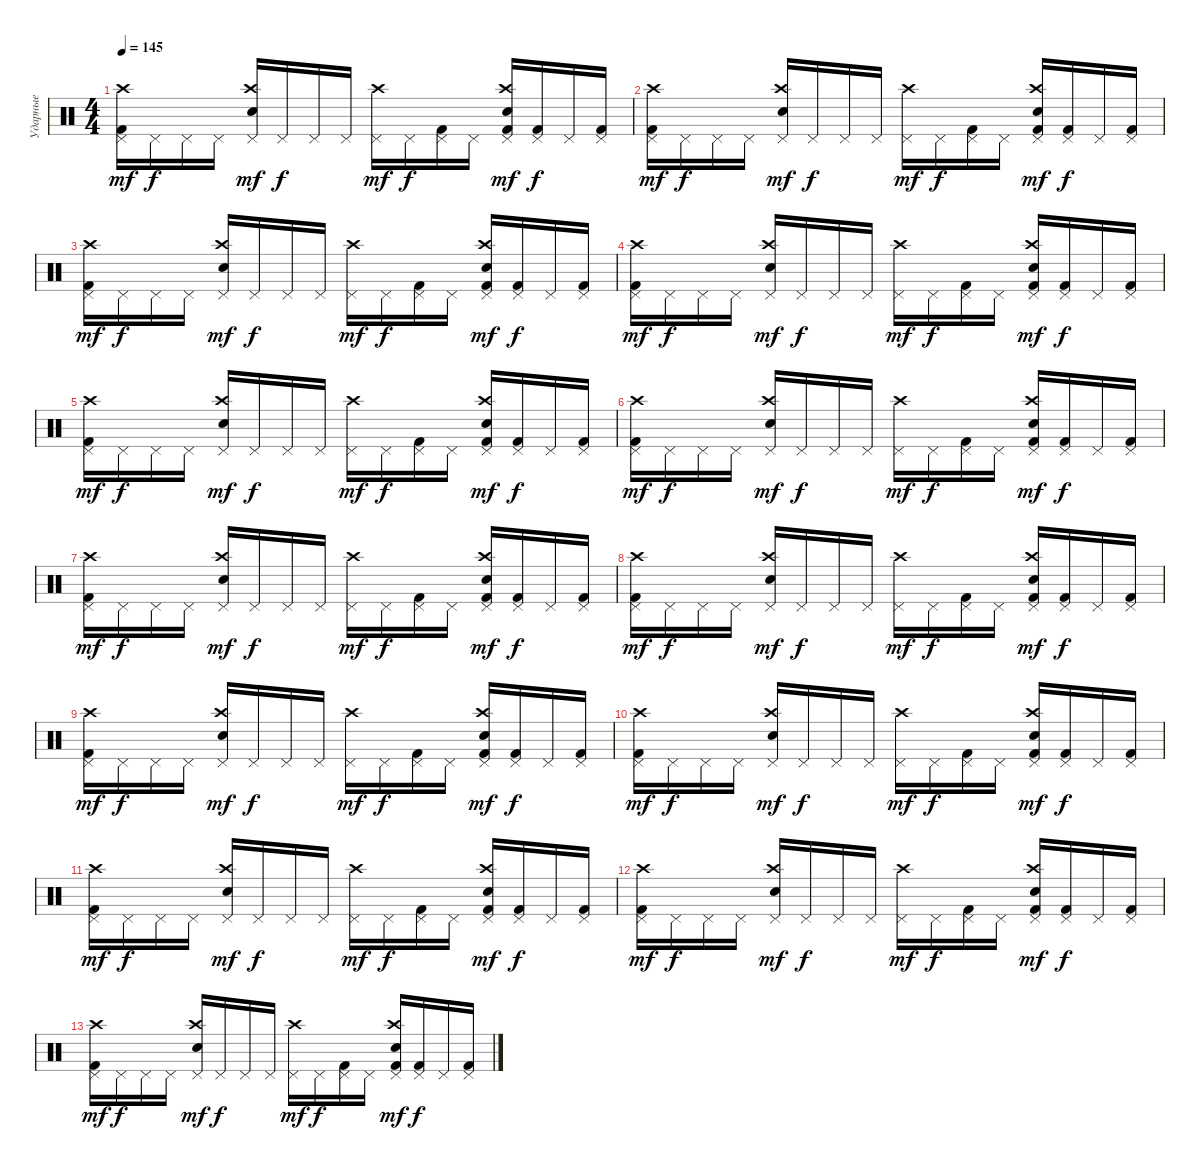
\track ("Ударные" "Ударные") {instrument percussion}
\staff {score}
\articulation defaults
\ts (4 4)
\tempo 145
\clef neutral
\ks c
("Kick (hit) 2" "Pedal Hi-Hat (hit)" "Crash high (hit)").16{dy mf} "Pedal Hi-Hat (hit)".16{dy f} "Pedal Hi-Hat (hit)".16 "Pedal Hi-Hat (hit)".16 ("Electric Snare (hit)" "Pedal Hi-Hat (hit)" "Crash high (hit)").16{dy mf} "Pedal Hi-Hat (hit)".16{dy f} "Pedal Hi-Hat (hit)".16 "Pedal Hi-Hat (hit)".16 ("Pedal Hi-Hat (hit)" "Crash high (hit)").16{dy mf} "Pedal Hi-Hat (hit)".16{dy f} ("Kick (hit) 2" "Pedal Hi-Hat (hit)").16 "Pedal Hi-Hat (hit)".16 ("Kick (hit) 2" "Electric Snare (hit)" "Pedal Hi-Hat (hit)" "Crash high (hit)").16{dy mf} ("Kick (hit) 2" "Pedal Hi-Hat (hit)").16{dy f} "Pedal Hi-Hat (hit)".16 ("Kick (hit) 2" "Pedal Hi-Hat (hit)").16 |
("Kick (hit) 2" "Pedal Hi-Hat (hit)" "Crash high (hit)").16{dy mf} "Pedal Hi-Hat (hit)".16{dy f} "Pedal Hi-Hat (hit)".16 "Pedal Hi-Hat (hit)".16 ("Electric Snare (hit)" "Pedal Hi-Hat (hit)" "Crash high (hit)").16{dy mf} "Pedal Hi-Hat (hit)".16{dy f} "Pedal Hi-Hat (hit)".16 "Pedal Hi-Hat (hit)".16 ("Pedal Hi-Hat (hit)" "Crash high (hit)").16{dy mf} "Pedal Hi-Hat (hit)".16{dy f} ("Kick (hit) 2" "Pedal Hi-Hat (hit)").16 "Pedal Hi-Hat (hit)".16 ("Kick (hit) 2" "Electric Snare (hit)" "Pedal Hi-Hat (hit)" "Crash high (hit)").16{dy mf} ("Kick (hit) 2" "Pedal Hi-Hat (hit)").16{dy f} "Pedal Hi-Hat (hit)".16 ("Kick (hit) 2" "Pedal Hi-Hat (hit)").16 |
("Crash high (hit)" "Kick (hit) 2" "Pedal Hi-Hat (hit)").16{dy mf volume 15} "Pedal Hi-Hat (hit)".16{dy f} "Pedal Hi-Hat (hit)".16 "Pedal Hi-Hat (hit)".16 ("Crash high (hit)" "Electric Snare (hit)" "Pedal Hi-Hat (hit)").16{dy mf} "Pedal Hi-Hat (hit)".16{dy f} "Pedal Hi-Hat (hit)".16 "Pedal Hi-Hat (hit)".16 ("Crash high (hit)" "Pedal Hi-Hat (hit)").16{dy mf} "Pedal Hi-Hat (hit)".16{dy f} ("Kick (hit) 2" "Pedal Hi-Hat (hit)").16 "Pedal Hi-Hat (hit)".16 ("Crash high (hit)" "Kick (hit) 2" "Electric Snare (hit)" "Pedal Hi-Hat (hit)").16{dy mf} ("Kick (hit) 2" "Pedal Hi-Hat (hit)").16{dy f} "Pedal Hi-Hat (hit)".16 ("Kick (hit) 2" "Pedal Hi-Hat (hit)").16 |
("Crash high (hit)" "Kick (hit) 2" "Pedal Hi-Hat (hit)").16{dy mf volume 14} "Pedal Hi-Hat (hit)".16{dy f} "Pedal Hi-Hat (hit)".16 "Pedal Hi-Hat (hit)".16 ("Crash high (hit)" "Electric Snare (hit)" "Pedal Hi-Hat (hit)").16{dy mf} "Pedal Hi-Hat (hit)".16{dy f} "Pedal Hi-Hat (hit)".16 "Pedal Hi-Hat (hit)".16 ("Crash high (hit)" "Pedal Hi-Hat (hit)").16{dy mf} "Pedal Hi-Hat (hit)".16{dy f} ("Kick (hit) 2" "Pedal Hi-Hat (hit)").16 "Pedal Hi-Hat (hit)".16 ("Crash high (hit)" "Kick (hit) 2" "Electric Snare (hit)" "Pedal Hi-Hat (hit)").16{dy mf} ("Kick (hit) 2" "Pedal Hi-Hat (hit)").16{dy f} "Pedal Hi-Hat (hit)".16 ("Kick (hit) 2" "Pedal Hi-Hat (hit)").16 |
("Crash high (hit)" "Kick (hit) 2" "Pedal Hi-Hat (hit)").16{dy mf volume 13} "Pedal Hi-Hat (hit)".16{dy f} "Pedal Hi-Hat (hit)".16 "Pedal Hi-Hat (hit)".16 ("Crash high (hit)" "Electric Snare (hit)" "Pedal Hi-Hat (hit)").16{dy mf} "Pedal Hi-Hat (hit)".16{dy f} "Pedal Hi-Hat (hit)".16 "Pedal Hi-Hat (hit)".16 ("Crash high (hit)" "Pedal Hi-Hat (hit)").16{dy mf} "Pedal Hi-Hat (hit)".16{dy f} ("Kick (hit) 2" "Pedal Hi-Hat (hit)").16 "Pedal Hi-Hat (hit)".16 ("Crash high (hit)" "Kick (hit) 2" "Electric Snare (hit)" "Pedal Hi-Hat (hit)").16{dy mf} ("Kick (hit) 2" "Pedal Hi-Hat (hit)").16{dy f} "Pedal Hi-Hat (hit)".16 ("Kick (hit) 2" "Pedal Hi-Hat (hit)").16 |
("Crash high (hit)" "Kick (hit) 2" "Pedal Hi-Hat (hit)").16{dy mf volume 12} "Pedal Hi-Hat (hit)".16{dy f} "Pedal Hi-Hat (hit)".16 "Pedal Hi-Hat (hit)".16 ("Crash high (hit)" "Electric Snare (hit)" "Pedal Hi-Hat (hit)").16{dy mf} "Pedal Hi-Hat (hit)".16{dy f} "Pedal Hi-Hat (hit)".16 "Pedal Hi-Hat (hit)".16 ("Crash high (hit)" "Pedal Hi-Hat (hit)").16{dy mf} "Pedal Hi-Hat (hit)".16{dy f} ("Kick (hit) 2" "Pedal Hi-Hat (hit)").16 "Pedal Hi-Hat (hit)".16 ("Crash high (hit)" "Kick (hit) 2" "Electric Snare (hit)" "Pedal Hi-Hat (hit)").16{dy mf} ("Kick (hit) 2" "Pedal Hi-Hat (hit)").16{dy f} "Pedal Hi-Hat (hit)".16 ("Kick (hit) 2" "Pedal Hi-Hat (hit)").16 |
("Kick (hit) 2" "Pedal Hi-Hat (hit)" "Crash high (hit)").16{dy mf volume 11} "Pedal Hi-Hat (hit)".16{dy f} "Pedal Hi-Hat (hit)".16 "Pedal Hi-Hat (hit)".16 ("Electric Snare (hit)" "Pedal Hi-Hat (hit)" "Crash high (hit)").16{dy mf} "Pedal Hi-Hat (hit)".16{dy f} "Pedal Hi-Hat (hit)".16 "Pedal Hi-Hat (hit)".16 ("Pedal Hi-Hat (hit)" "Crash high (hit)").16{dy mf} "Pedal Hi-Hat (hit)".16{dy f} ("Kick (hit) 2" "Pedal Hi-Hat (hit)").16 "Pedal Hi-Hat (hit)".16 ("Kick (hit) 2" "Electric Snare (hit)" "Pedal Hi-Hat (hit)" "Crash high (hit)").16{dy mf} ("Kick (hit) 2" "Pedal Hi-Hat (hit)").16{dy f} "Pedal Hi-Hat (hit)".16 ("Kick (hit) 2" "Pedal Hi-Hat (hit)").16 |
("Kick (hit) 2" "Pedal Hi-Hat (hit)" "Crash high (hit)").16{dy mf volume 10} "Pedal Hi-Hat (hit)".16{dy f} "Pedal Hi-Hat (hit)".16 "Pedal Hi-Hat (hit)".16 ("Electric Snare (hit)" "Pedal Hi-Hat (hit)" "Crash high (hit)").16{dy mf} "Pedal Hi-Hat (hit)".16{dy f} "Pedal Hi-Hat (hit)".16 "Pedal Hi-Hat (hit)".16 ("Pedal Hi-Hat (hit)" "Crash high (hit)").16{dy mf} "Pedal Hi-Hat (hit)".16{dy f} ("Kick (hit) 2" "Pedal Hi-Hat (hit)").16 "Pedal Hi-Hat (hit)".16 ("Kick (hit) 2" "Electric Snare (hit)" "Pedal Hi-Hat (hit)" "Crash high (hit)").16{dy mf} ("Kick (hit) 2" "Pedal Hi-Hat (hit)").16{dy f} "Pedal Hi-Hat (hit)".16 ("Kick (hit) 2" "Pedal Hi-Hat (hit)").16 |
("Crash high (hit)" "Kick (hit) 2" "Pedal Hi-Hat (hit)").16{dy mf volume 8} "Pedal Hi-Hat (hit)".16{dy f} "Pedal Hi-Hat (hit)".16 "Pedal Hi-Hat (hit)".16 ("Crash high (hit)" "Electric Snare (hit)" "Pedal Hi-Hat (hit)").16{dy mf} "Pedal Hi-Hat (hit)".16{dy f} "Pedal Hi-Hat (hit)".16 "Pedal Hi-Hat (hit)".16 ("Crash high (hit)" "Pedal Hi-Hat (hit)").16{dy mf} "Pedal Hi-Hat (hit)".16{dy f} ("Kick (hit) 2" "Pedal Hi-Hat (hit)").16 "Pedal Hi-Hat (hit)".16 ("Crash high (hit)" "Kick (hit) 2" "Electric Snare (hit)" "Pedal Hi-Hat (hit)").16{dy mf} ("Kick (hit) 2" "Pedal Hi-Hat (hit)").16{dy f} "Pedal Hi-Hat (hit)".16 ("Kick (hit) 2" "Pedal Hi-Hat (hit)").16 |
("Crash high (hit)" "Kick (hit) 2" "Pedal Hi-Hat (hit)").16{dy mf volume 6} "Pedal Hi-Hat (hit)".16{dy f} "Pedal Hi-Hat (hit)".16 "Pedal Hi-Hat (hit)".16 ("Crash high (hit)" "Electric Snare (hit)" "Pedal Hi-Hat (hit)").16{dy mf} "Pedal Hi-Hat (hit)".16{dy f} "Pedal Hi-Hat (hit)".16 "Pedal Hi-Hat (hit)".16 ("Crash high (hit)" "Pedal Hi-Hat (hit)").16{dy mf} "Pedal Hi-Hat (hit)".16{dy f} ("Kick (hit) 2" "Pedal Hi-Hat (hit)").16 "Pedal Hi-Hat (hit)".16 ("Crash high (hit)" "Kick (hit) 2" "Electric Snare (hit)" "Pedal Hi-Hat (hit)").16{dy mf} ("Kick (hit) 2" "Pedal Hi-Hat (hit)").16{dy f} "Pedal Hi-Hat (hit)".16 ("Kick (hit) 2" "Pedal Hi-Hat (hit)").16 |
("Crash high (hit)" "Kick (hit) 2" "Pedal Hi-Hat (hit)").16{dy mf volume 4} "Pedal Hi-Hat (hit)".16{dy f} "Pedal Hi-Hat (hit)".16 "Pedal Hi-Hat (hit)".16 ("Crash high (hit)" "Electric Snare (hit)" "Pedal Hi-Hat (hit)").16{dy mf} "Pedal Hi-Hat (hit)".16{dy f} "Pedal Hi-Hat (hit)".16 "Pedal Hi-Hat (hit)".16 ("Crash high (hit)" "Pedal Hi-Hat (hit)").16{dy mf} "Pedal Hi-Hat (hit)".16{dy f} ("Kick (hit) 2" "Pedal Hi-Hat (hit)").16 "Pedal Hi-Hat (hit)".16 ("Crash high (hit)" "Kick (hit) 2" "Electric Snare (hit)" "Pedal Hi-Hat (hit)").16{dy mf} ("Kick (hit) 2" "Pedal Hi-Hat (hit)").16{dy f} "Pedal Hi-Hat (hit)".16 ("Kick (hit) 2" "Pedal Hi-Hat (hit)").16 |
("Crash high (hit)" "Kick (hit) 2" "Pedal Hi-Hat (hit)").16{dy mf volume 3} "Pedal Hi-Hat (hit)".16{dy f} "Pedal Hi-Hat (hit)".16 "Pedal Hi-Hat (hit)".16 ("Crash high (hit)" "Electric Snare (hit)" "Pedal Hi-Hat (hit)").16{dy mf} "Pedal Hi-Hat (hit)".16{dy f} "Pedal Hi-Hat (hit)".16 "Pedal Hi-Hat (hit)".16 ("Crash high (hit)" "Pedal Hi-Hat (hit)").16{dy mf} "Pedal Hi-Hat (hit)".16{dy f} ("Kick (hit) 2" "Pedal Hi-Hat (hit)").16 "Pedal Hi-Hat (hit)".16 ("Crash high (hit)" "Kick (hit) 2" "Electric Snare (hit)" "Pedal Hi-Hat (hit)").16{dy mf} ("Kick (hit) 2" "Pedal Hi-Hat (hit)").16{dy f} "Pedal Hi-Hat (hit)".16 ("Kick (hit) 2" "Pedal Hi-Hat (hit)").16 |
("Kick (hit) 2" "Pedal Hi-Hat (hit)" "Crash high (hit)").16{dy mf volume 1} "Pedal Hi-Hat (hit)".16{dy f} "Pedal Hi-Hat (hit)".16 "Pedal Hi-Hat (hit)".16 ("Electric Snare (hit)" "Pedal Hi-Hat (hit)" "Crash high (hit)").16{dy mf} "Pedal Hi-Hat (hit)".16{dy f} "Pedal Hi-Hat (hit)".16 "Pedal Hi-Hat (hit)".16 ("Pedal Hi-Hat (hit)" "Crash high (hit)").16{dy mf} "Pedal Hi-Hat (hit)".16{dy f} ("Kick (hit) 2" "Pedal Hi-Hat (hit)").16 "Pedal Hi-Hat (hit)".16 ("Kick (hit) 2" "Electric Snare (hit)" "Pedal Hi-Hat (hit)" "Crash high (hit)").16{dy mf} ("Kick (hit) 2" "Pedal Hi-Hat (hit)").16{dy f} "Pedal Hi-Hat (hit)".16 ("Kick (hit) 2" "Pedal Hi-Hat (hit)").16
